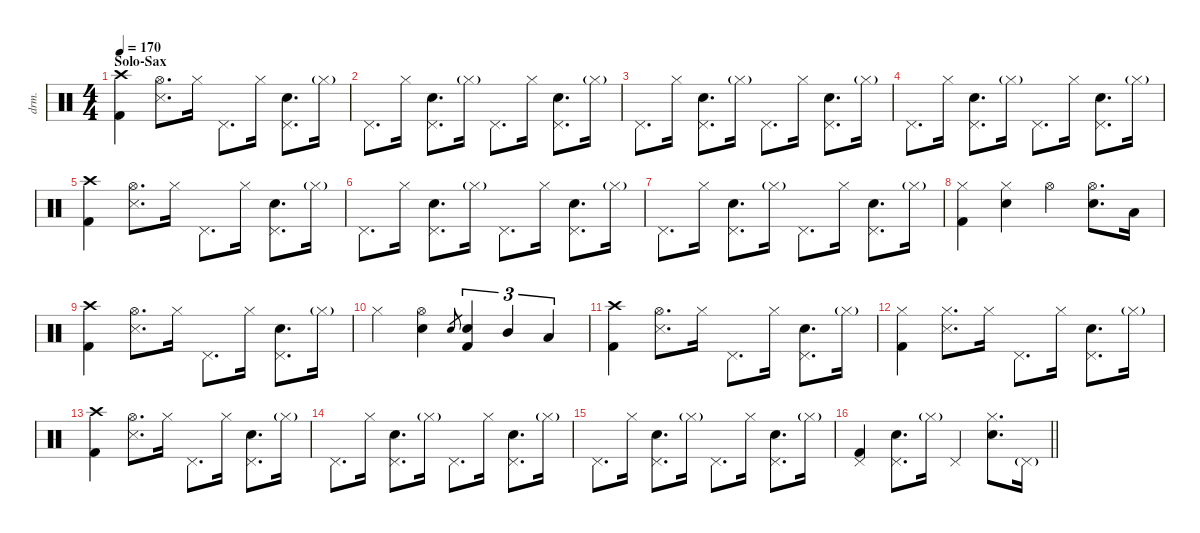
\defaultSystemsLayout 4
\hideDynamics
\bracketExtendMode nobrackets
\otherSystemsTrackNameOrientation horizontal
\track ("Drums" "drm.") {instrument percussion}
\staff {score}
\articulation defaults
\ts (4 4)
\section ("" "Solo-Sax")
\tempo 170
\clef neutral
\ks c
("Crash high (hit)" "Kick (hit) 2").4{dy f beam Down} ("Hi-Hat (open)" "Snare (side stick) 3").8{d beam Down} "Hi-Hat (closed)".16{beam Down} "Pedal Hi-Hat (hit)".8{d beam Down} "Hi-Hat (closed)".16{beam Down} ("Pedal Hi-Hat (hit)" "Snare (hit) 2").8{d beam Down} "Hi-Hat (closed)"{g}.16{dy mf beam Down} |
"Pedal Hi-Hat (hit)".8{d dy f beam Down} "Hi-Hat (closed)".16{beam Down} ("Pedal Hi-Hat (hit)" "Snare (hit) 2").8{d beam Down} "Hi-Hat (closed)"{g}.16{dy mf beam Down} "Pedal Hi-Hat (hit)".8{d dy f beam Down} "Hi-Hat (closed)".16{beam Down} ("Pedal Hi-Hat (hit)" "Snare (hit) 2").8{d beam Down} "Hi-Hat (closed)"{g}.16{dy mf beam Down} |
"Pedal Hi-Hat (hit)".8{d dy f beam Down} "Hi-Hat (closed)".16{beam Down} ("Pedal Hi-Hat (hit)" "Snare (hit) 2").8{d beam Down} "Hi-Hat (closed)"{g}.16{dy mf beam Down} "Pedal Hi-Hat (hit)".8{d dy f beam Down} "Hi-Hat (closed)".16{beam Down} ("Pedal Hi-Hat (hit)" "Snare (hit) 2").8{d beam Down} "Hi-Hat (closed)"{g}.16{dy mf beam Down} |
"Pedal Hi-Hat (hit)".8{d dy f beam Down} "Hi-Hat (closed)".16{beam Down} ("Pedal Hi-Hat (hit)" "Snare (hit) 2").8{d beam Down} "Hi-Hat (closed)"{g}.16{dy mf beam Down} "Pedal Hi-Hat (hit)".8{d dy f beam Down} "Hi-Hat (closed)".16{beam Down} ("Pedal Hi-Hat (hit)" "Snare (hit) 2").8{d beam Down} "Hi-Hat (closed)"{g}.16{dy mf beam Down} |
("Crash high (hit)" "Kick (hit) 2").4{dy f beam Down} ("Hi-Hat (open)" "Snare (side stick) 3").8{d beam Down} "Hi-Hat (closed)".16{beam Down} "Pedal Hi-Hat (hit)".8{d beam Down} "Hi-Hat (closed)".16{beam Down} ("Pedal Hi-Hat (hit)" "Snare (hit) 2").8{d beam Down} "Hi-Hat (closed)"{g}.16{dy mf beam Down} |
"Pedal Hi-Hat (hit)".8{d dy f beam Down} "Hi-Hat (closed)".16{beam Down} ("Pedal Hi-Hat (hit)" "Snare (hit) 2").8{d beam Down} "Hi-Hat (closed)"{g}.16{dy mf beam Down} "Pedal Hi-Hat (hit)".8{d dy f beam Down} "Hi-Hat (closed)".16{beam Down} ("Pedal Hi-Hat (hit)" "Snare (hit) 2").8{d beam Down} "Hi-Hat (closed)"{g}.16{dy mf beam Down} |
"Pedal Hi-Hat (hit)".8{d dy f beam Down} "Hi-Hat (closed)".16{beam Down} ("Pedal Hi-Hat (hit)" "Snare (hit) 2").8{d beam Down} "Hi-Hat (closed)"{g}.16{dy mf beam Down} "Pedal Hi-Hat (hit)".8{d dy f beam Down} "Hi-Hat (closed)".16{beam Down} ("Pedal Hi-Hat (hit)" "Snare (hit) 2").8{d beam Down} "Hi-Hat (closed)"{g}.16{dy mf beam Down} |
("Hi-Hat (closed)" "Kick (hit) 2").4{dy f beam Down} ("Hi-Hat (closed)" "Snare (hit) 2").4{beam Down} "Hi-Hat (open)".4{beam Down} ("Hi-Hat (open)" "Snare (hit) 2").8{d beam Down} "Low Tom (hit)".16{beam Down} |
("Crash high (hit)" "Kick (hit) 2").4{beam Down} ("Hi-Hat (open)" "Snare (side stick) 3").8{d beam Down} "Hi-Hat (closed)".16{beam Down} "Pedal Hi-Hat (hit)".8{d beam Down} "Hi-Hat (closed)".16{beam Down} ("Pedal Hi-Hat (hit)" "Snare (hit) 2").8{d beam Down} "Hi-Hat (closed)"{g}.16{dy mf beam Down} |
"Hi-Hat (closed)".4{dy f beam Down} ("Hi-Hat (open)" "Snare (hit) 2").4{beam Down} "Snare (hit) 2".8{gr dy mf beam Up} ("Snare (hit) 2" "Kick (hit) 2").4{tu (3 2) dy f beam Up} "Mid Tom (hit)".4{tu (3 2) beam Up} "Low Tom (hit)".4{tu (3 2) beam Up} |
("Crash high (hit)" "Kick (hit) 2").4{beam Down} ("Hi-Hat (open)" "Snare (side stick) 3").8{d beam Down} "Hi-Hat (closed)".16{beam Down} "Pedal Hi-Hat (hit)".8{d beam Down} "Hi-Hat (closed)".16{beam Down} ("Pedal Hi-Hat (hit)" "Snare (hit) 2").8{d beam Down} "Hi-Hat (closed)"{g}.16{dy mf beam Down} |
("Hi-Hat (closed)" "Kick (hit) 2").4{dy f beam Down} ("Hi-Hat (closed)" "Snare (side stick) 3").8{d beam Down} "Hi-Hat (closed)".16{beam Down} "Pedal Hi-Hat (hit)".8{d beam Down} "Hi-Hat (closed)".16{beam Down} ("Pedal Hi-Hat (hit)" "Snare (hit) 2").8{d beam Down} "Hi-Hat (closed)"{g}.16{dy mf beam Down} |
("Crash high (hit)" "Kick (hit) 2").4{dy f beam Down} ("Hi-Hat (open)" "Snare (side stick) 3").8{d beam Down} "Hi-Hat (closed)".16{beam Down} "Pedal Hi-Hat (hit)".8{d beam Down} "Hi-Hat (closed)".16{beam Down} ("Pedal Hi-Hat (hit)" "Snare (hit) 2").8{d beam Down} "Hi-Hat (closed)"{g}.16{dy mf beam Down} |
"Pedal Hi-Hat (hit)".8{d dy f beam Down} "Hi-Hat (closed)".16{beam Down} ("Pedal Hi-Hat (hit)" "Snare (hit) 2").8{d beam Down} "Hi-Hat (closed)"{g}.16{dy mf beam Down} "Pedal Hi-Hat (hit)".8{d dy f beam Down} "Hi-Hat (closed)".16{beam Down} ("Pedal Hi-Hat (hit)" "Snare (hit) 2").8{d beam Down} "Hi-Hat (closed)"{g}.16{dy mf beam Down} |
"Pedal Hi-Hat (hit)".8{d dy f beam Down} "Hi-Hat (closed)".16{beam Down} ("Pedal Hi-Hat (hit)" "Snare (hit) 2").8{d beam Down} "Hi-Hat (closed)"{g}.16{dy mf beam Down} "Pedal Hi-Hat (hit)".8{d dy f beam Down} "Hi-Hat (closed)".16{beam Down} ("Pedal Hi-Hat (hit)" "Snare (hit) 2").8{d beam Down} "Hi-Hat (closed)"{g}.16{dy mf beam Down} |
\barLineRight lightlight
("Pedal Hi-Hat (hit)" "Kick (hit) 2").4{dy f beam Up} ("Pedal Hi-Hat (hit)" "Snare (hit) 2").8{d beam Down} "Hi-Hat (closed)"{g}.16{dy mf beam Down} "Pedal Hi-Hat (hit)".4{dy f beam Up} ("Hi-Hat (closed)" "Snare (hit) 2").8{d beam Down} "Pedal Hi-Hat (hit)"{g}.16{dy mf beam Down}
